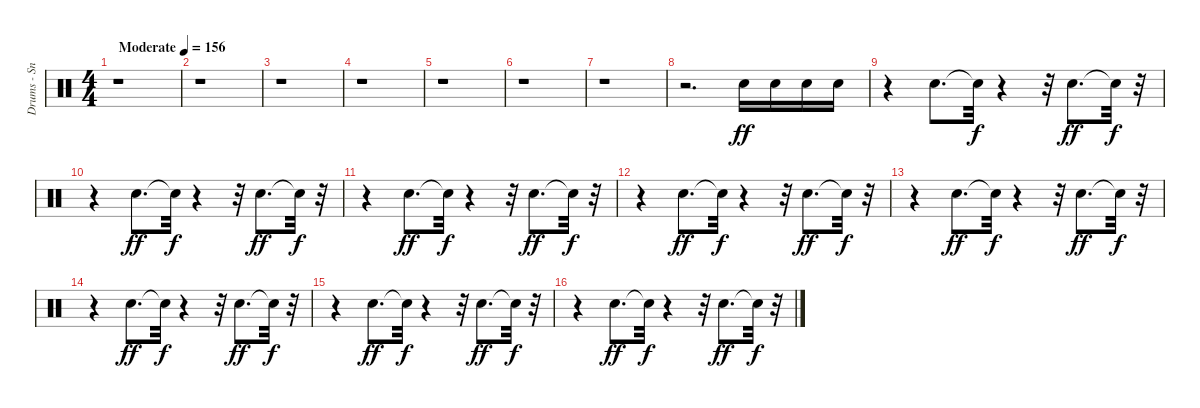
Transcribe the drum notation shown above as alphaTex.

\track ("Drums - Snare/Toms" "Drums - Sn") {instrument percussion}
\staff {score}
\articulation defaults
\ts (4 4)
\tempo (156 "Moderate")
\clef neutral
\ks c
r.1{dy ff} |
r.1 |
r.1 |
r.1 |
r.1 |
r.1 |
r.1 |
r.2{d} "Electric Snare (hit)".16 "Electric Snare (hit)".16 "Electric Snare (hit)".16 "Electric Snare (hit)".16 |
r.4 "Electric Snare (hit)".8{d} "Snare (hit)"{t}.32{dy f} r.4 r.32 "Electric Snare (hit)".8{d dy ff} "Snare (hit)"{t}.32{dy f} r.32 |
r.4 "Electric Snare (hit)".8{d dy ff} "Snare (hit)"{t}.32{dy f} r.4 r.32 "Electric Snare (hit)".8{d dy ff} "Snare (hit)"{t}.32{dy f} r.32 |
r.4 "Electric Snare (hit)".8{d dy ff} "Snare (hit)"{t}.32{dy f} r.4 r.32 "Electric Snare (hit)".8{d dy ff} "Snare (hit)"{t}.32{dy f} r.32 |
r.4 "Electric Snare (hit)".8{d dy ff} "Snare (hit)"{t}.32{dy f} r.4 r.32 "Electric Snare (hit)".8{d dy ff} "Snare (hit)"{t}.32{dy f} r.32 |
r.4 "Electric Snare (hit)".8{d dy ff} "Snare (hit)"{t}.32{dy f} r.4 r.32 "Electric Snare (hit)".8{d dy ff} "Snare (hit)"{t}.32{dy f} r.32 |
r.4 "Electric Snare (hit)".8{d dy ff} "Snare (hit)"{t}.32{dy f} r.4 r.32 "Electric Snare (hit)".8{d dy ff} "Snare (hit)"{t}.32{dy f} r.32 |
r.4 "Electric Snare (hit)".8{d dy ff} "Snare (hit)"{t}.32{dy f} r.4 r.32 "Electric Snare (hit)".8{d dy ff} "Snare (hit)"{t}.32{dy f} r.32 |
r.4 "Electric Snare (hit)".8{d dy ff} "Snare (hit)"{t}.32{dy f} r.4 r.32 "Electric Snare (hit)".8{d dy ff} "Snare (hit)"{t}.32{dy f} r.32
